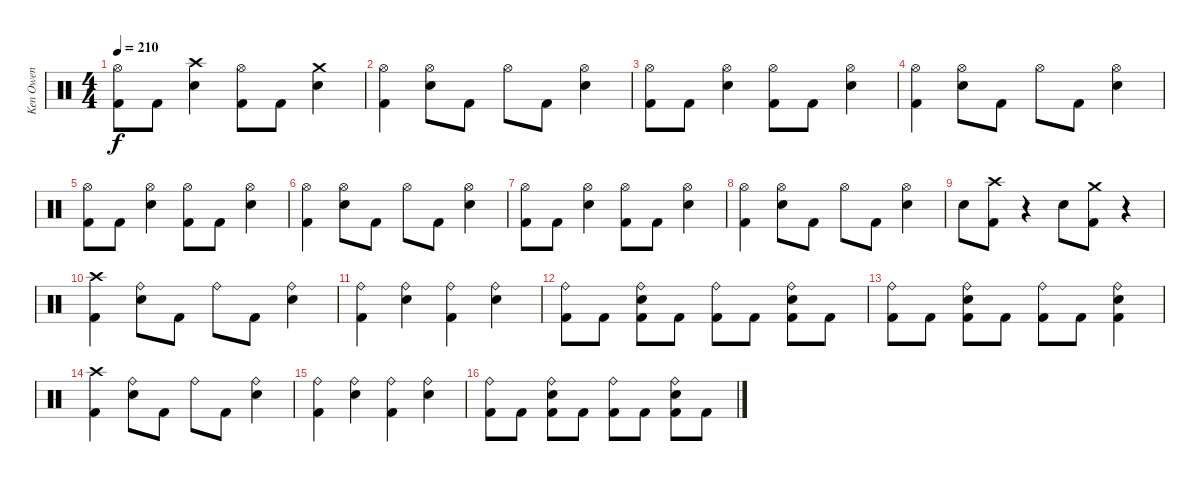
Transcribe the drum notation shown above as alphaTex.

\track ("Ken Owen" "Ken Owen") {instrument percussion}
\staff {score}
\articulation defaults
\ts (4 4)
\tempo 210
\clef neutral
\ks c
("Hi-Hat (open)" "Kick (hit) 2").8{dy f} "Kick (hit) 2".8 ("Crash high (hit)" "Snare (hit) 2").4 ("Hi-Hat (open)" "Kick (hit) 2").8 "Kick (hit) 2".8 ("Crash medium (hit)" "Snare (hit) 2").4 |
("Hi-Hat (open)" "Kick (hit) 2").4 ("Hi-Hat (open)" "Snare (hit) 2").8 "Kick (hit) 2".8 "Hi-Hat (open)".8 "Kick (hit) 2".8 ("Hi-Hat (open)" "Snare (hit) 2").4 |
("Hi-Hat (open)" "Kick (hit) 2").8 "Kick (hit) 2".8 ("Hi-Hat (open)" "Snare (hit) 2").4 ("Hi-Hat (open)" "Kick (hit) 2").8 "Kick (hit) 2".8 ("Hi-Hat (open)" "Snare (hit) 2").4 |
("Hi-Hat (open)" "Kick (hit) 2").4 ("Hi-Hat (open)" "Snare (hit) 2").8 "Kick (hit) 2".8 "Hi-Hat (open)".8 "Kick (hit) 2".8 ("Hi-Hat (open)" "Snare (hit) 2").4 |
("Hi-Hat (open)" "Kick (hit) 2").8 "Kick (hit) 2".8 ("Hi-Hat (open)" "Snare (hit) 2").4 ("Hi-Hat (open)" "Kick (hit) 2").8 "Kick (hit) 2".8 ("Hi-Hat (open)" "Snare (hit) 2").4 |
("Hi-Hat (open)" "Kick (hit) 2").4 ("Hi-Hat (open)" "Snare (hit) 2").8 "Kick (hit) 2".8 "Hi-Hat (open)".8 "Kick (hit) 2".8 ("Hi-Hat (open)" "Snare (hit) 2").4 |
("Hi-Hat (open)" "Kick (hit) 2").8 "Kick (hit) 2".8 ("Hi-Hat (open)" "Snare (hit) 2").4 ("Hi-Hat (open)" "Kick (hit) 2").8 "Kick (hit) 2".8 ("Hi-Hat (open)" "Snare (hit) 2").4 |
("Hi-Hat (open)" "Kick (hit) 2").4 ("Hi-Hat (open)" "Snare (hit) 2").8 "Kick (hit) 2".8 "Hi-Hat (open)".8 "Kick (hit) 2".8 ("Hi-Hat (open)" "Snare (hit) 2").4 |
"Snare (hit) 2".8 ("Crash high (hit)" "Kick (hit) 2").8 r.4 "Snare (hit) 2".8 ("Crash medium (hit)" "Kick (hit) 2").8 r.4 |
("Crash high (hit)" "Kick (hit) 2").4 ("Ride (bell)" "Snare (hit) 2").8 "Kick (hit) 2".8 "Ride (bell)".8 "Kick (hit) 2".8 ("Ride (bell)" "Snare (hit) 2").4 |
("Ride (bell)" "Kick (hit) 2").4 ("Ride (bell)" "Snare (hit) 2").4 ("Ride (bell)" "Kick (hit) 2").4 ("Ride (bell)" "Snare (hit) 2").4 |
("Ride (bell)" "Kick (hit) 2").8 "Kick (hit) 2".8 ("Snare (hit) 2" "Ride (bell)" "Kick (hit) 2").8 "Kick (hit) 2".8 ("Ride (bell)" "Kick (hit) 2").8 "Kick (hit) 2".8 ("Snare (hit) 2" "Ride (bell)" "Kick (hit) 2").8 "Kick (hit) 2".8 |
("Ride (bell)" "Kick (hit) 2").8 "Kick (hit) 2".8 ("Snare (hit) 2" "Ride (bell)" "Kick (hit) 2").8 "Kick (hit) 2".8 ("Ride (bell)" "Kick (hit) 2").8 "Kick (hit) 2".8 ("Snare (hit) 2" "Ride (bell)" "Kick (hit) 2").4 |
("Crash high (hit)" "Kick (hit) 2").4 ("Ride (bell)" "Snare (hit) 2").8 "Kick (hit) 2".8 "Ride (bell)".8 "Kick (hit) 2".8 ("Ride (bell)" "Snare (hit) 2").4 |
("Ride (bell)" "Kick (hit) 2").4 ("Ride (bell)" "Snare (hit) 2").4 ("Ride (bell)" "Kick (hit) 2").4 ("Ride (bell)" "Snare (hit) 2").4 |
("Ride (bell)" "Kick (hit) 2").8 "Kick (hit) 2".8 ("Snare (hit) 2" "Ride (bell)" "Kick (hit) 2").8 "Kick (hit) 2".8 ("Ride (bell)" "Kick (hit) 2").8 "Kick (hit) 2".8 ("Snare (hit) 2" "Ride (bell)" "Kick (hit) 2").8 "Kick (hit) 2".8
